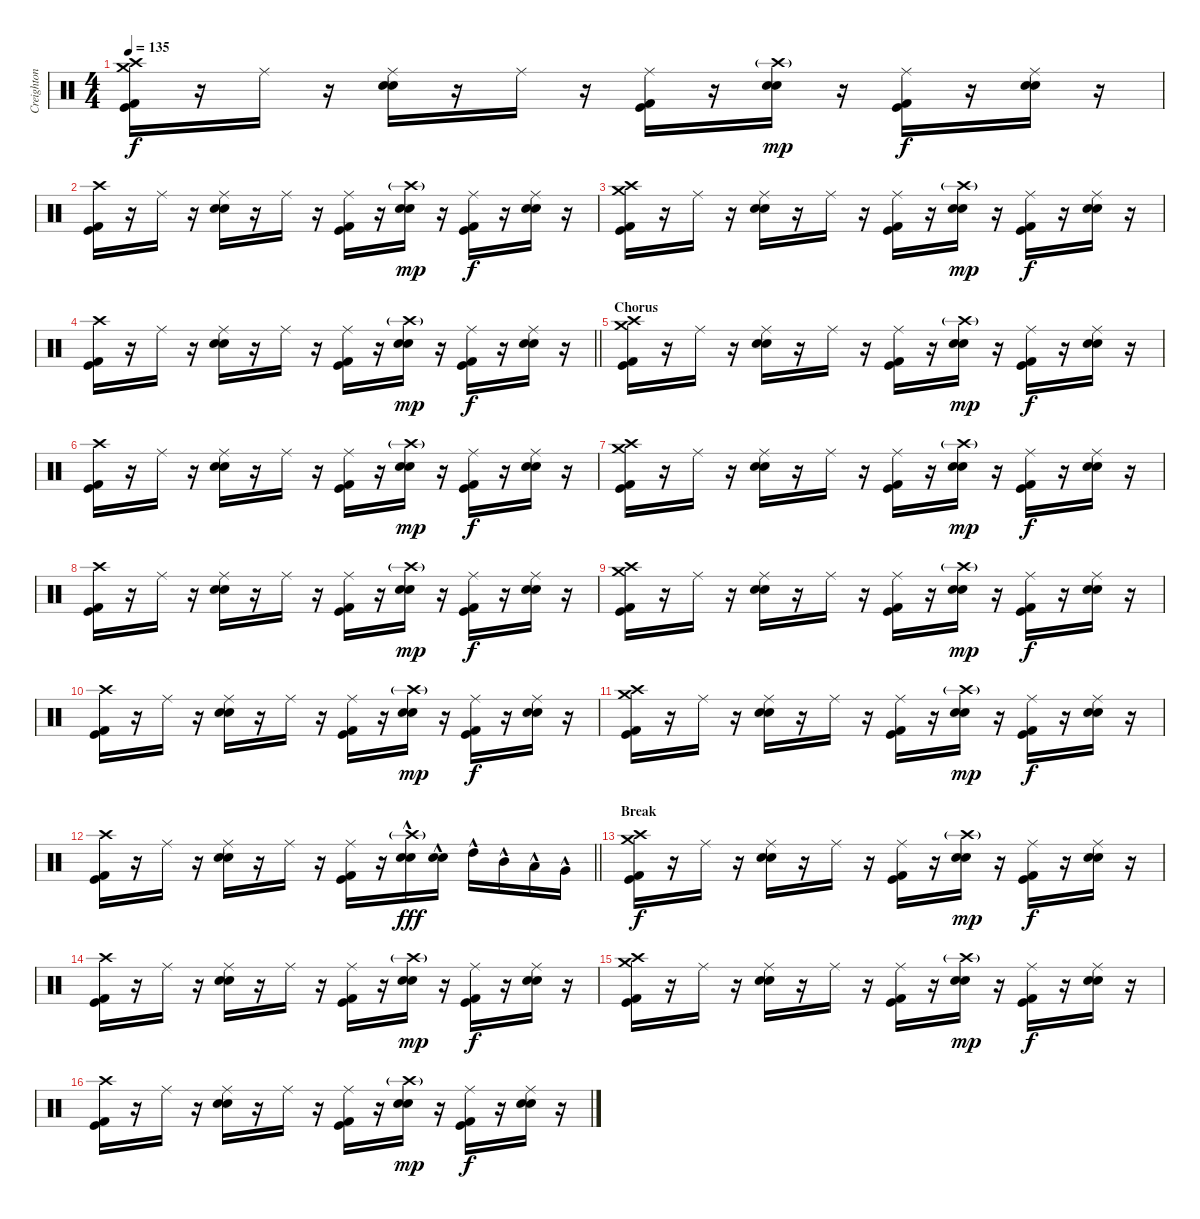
\track ("Creighton Barrett (Drums)" "Creighton ") {instrument percussion}
\staff {score}
\articulation defaults
\ts (4 4)
\tempo 135
\clef neutral
\ks c
("Crash high (hit)" "Crash medium (hit)" "Kick (hit)" "Kick (hit) 2").16{dy f} r.16 "Ride (middle)".16 r.16 ("Ride (middle)" "Electric Snare (hit)" "Snare (hit) 2").16 r.16 "Ride (middle)".16 r.16 ("Ride (middle)" "Kick (hit)" "Kick (hit) 2").16 r.16 ("Crash high (hit)"{g} "Electric Snare (hit)" "Snare (hit) 2").16{dy mp} r.16 ("Ride (middle)" "Kick (hit)" "Kick (hit) 2").16{dy f} r.16 ("Ride (middle)" "Electric Snare (hit)" "Snare (hit) 2").16 r.16 |
("Crash high (hit)" "Kick (hit)" "Kick (hit) 2").16 r.16 "Ride (middle)".16 r.16 ("Ride (middle)" "Electric Snare (hit)" "Snare (hit) 2").16 r.16 "Ride (middle)".16 r.16 ("Ride (middle)" "Kick (hit)" "Kick (hit) 2").16 r.16 ("Crash high (hit)"{g} "Electric Snare (hit)" "Snare (hit) 2").16{dy mp} r.16 ("Ride (middle)" "Kick (hit)" "Kick (hit) 2").16{dy f} r.16 ("Ride (middle)" "Electric Snare (hit)" "Snare (hit) 2").16 r.16 |
("Crash high (hit)" "Crash medium (hit)" "Kick (hit)" "Kick (hit) 2").16 r.16 "Ride (middle)".16 r.16 ("Ride (middle)" "Electric Snare (hit)" "Snare (hit) 2").16 r.16 "Ride (middle)".16 r.16 ("Ride (middle)" "Kick (hit)" "Kick (hit) 2").16 r.16 ("Crash high (hit)"{g} "Electric Snare (hit)" "Snare (hit) 2").16{dy mp} r.16 ("Ride (middle)" "Kick (hit)" "Kick (hit) 2").16{dy f} r.16 ("Ride (middle)" "Electric Snare (hit)" "Snare (hit) 2").16 r.16 |
\barLineRight lightlight
("Crash high (hit)" "Kick (hit)" "Kick (hit) 2").16 r.16 "Ride (middle)".16 r.16 ("Ride (middle)" "Electric Snare (hit)" "Snare (hit) 2").16 r.16 "Ride (middle)".16 r.16 ("Ride (middle)" "Kick (hit)" "Kick (hit) 2").16 r.16 ("Crash high (hit)"{g} "Electric Snare (hit)" "Snare (hit) 2").16{dy mp} r.16 ("Ride (middle)" "Kick (hit)" "Kick (hit) 2").16{dy f} r.16 ("Ride (middle)" "Electric Snare (hit)" "Snare (hit) 2").16 r.16 |
\section ("" "Chorus")
("Crash high (hit)" "Crash medium (hit)" "Kick (hit)" "Kick (hit) 2").16 r.16 "Ride (middle)".16 r.16 ("Ride (middle)" "Electric Snare (hit)" "Snare (hit) 2").16 r.16 "Ride (middle)".16 r.16 ("Ride (middle)" "Kick (hit)" "Kick (hit) 2").16 r.16 ("Crash high (hit)"{g} "Electric Snare (hit)" "Snare (hit) 2").16{dy mp} r.16 ("Ride (middle)" "Kick (hit)" "Kick (hit) 2").16{dy f} r.16 ("Ride (middle)" "Electric Snare (hit)" "Snare (hit) 2").16 r.16 |
("Crash high (hit)" "Kick (hit)" "Kick (hit) 2").16 r.16 "Ride (middle)".16 r.16 ("Ride (middle)" "Electric Snare (hit)" "Snare (hit) 2").16 r.16 "Ride (middle)".16 r.16 ("Ride (middle)" "Kick (hit)" "Kick (hit) 2").16 r.16 ("Crash high (hit)"{g} "Electric Snare (hit)" "Snare (hit) 2").16{dy mp} r.16 ("Ride (middle)" "Kick (hit)" "Kick (hit) 2").16{dy f} r.16 ("Ride (middle)" "Electric Snare (hit)" "Snare (hit) 2").16 r.16 |
("Crash high (hit)" "Crash medium (hit)" "Kick (hit)" "Kick (hit) 2").16 r.16 "Ride (middle)".16 r.16 ("Ride (middle)" "Electric Snare (hit)" "Snare (hit) 2").16 r.16 "Ride (middle)".16 r.16 ("Ride (middle)" "Kick (hit)" "Kick (hit) 2").16 r.16 ("Crash high (hit)"{g} "Electric Snare (hit)" "Snare (hit) 2").16{dy mp} r.16 ("Ride (middle)" "Kick (hit)" "Kick (hit) 2").16{dy f} r.16 ("Ride (middle)" "Electric Snare (hit)" "Snare (hit) 2").16 r.16 |
("Crash high (hit)" "Kick (hit)" "Kick (hit) 2").16 r.16 "Ride (middle)".16 r.16 ("Ride (middle)" "Electric Snare (hit)" "Snare (hit) 2").16 r.16 "Ride (middle)".16 r.16 ("Ride (middle)" "Kick (hit)" "Kick (hit) 2").16 r.16 ("Crash high (hit)"{g} "Electric Snare (hit)" "Snare (hit) 2").16{dy mp} r.16 ("Ride (middle)" "Kick (hit)" "Kick (hit) 2").16{dy f} r.16 ("Ride (middle)" "Electric Snare (hit)" "Snare (hit) 2").16 r.16 |
("Crash high (hit)" "Crash medium (hit)" "Kick (hit)" "Kick (hit) 2").16 r.16 "Ride (middle)".16 r.16 ("Ride (middle)" "Electric Snare (hit)" "Snare (hit) 2").16 r.16 "Ride (middle)".16 r.16 ("Ride (middle)" "Kick (hit)" "Kick (hit) 2").16 r.16 ("Crash high (hit)"{g} "Electric Snare (hit)" "Snare (hit) 2").16{dy mp} r.16 ("Ride (middle)" "Kick (hit)" "Kick (hit) 2").16{dy f} r.16 ("Ride (middle)" "Electric Snare (hit)" "Snare (hit) 2").16 r.16 |
("Crash high (hit)" "Kick (hit)" "Kick (hit) 2").16 r.16 "Ride (middle)".16 r.16 ("Ride (middle)" "Electric Snare (hit)" "Snare (hit) 2").16 r.16 "Ride (middle)".16 r.16 ("Ride (middle)" "Kick (hit)" "Kick (hit) 2").16 r.16 ("Crash high (hit)"{g} "Electric Snare (hit)" "Snare (hit) 2").16{dy mp} r.16 ("Ride (middle)" "Kick (hit)" "Kick (hit) 2").16{dy f} r.16 ("Ride (middle)" "Electric Snare (hit)" "Snare (hit) 2").16 r.16 |
("Crash high (hit)" "Crash medium (hit)" "Kick (hit)" "Kick (hit) 2").16 r.16 "Ride (middle)".16 r.16 ("Ride (middle)" "Electric Snare (hit)" "Snare (hit) 2").16 r.16 "Ride (middle)".16 r.16 ("Ride (middle)" "Kick (hit)" "Kick (hit) 2").16 r.16 ("Crash high (hit)"{g} "Electric Snare (hit)" "Snare (hit) 2").16{dy mp} r.16 ("Ride (middle)" "Kick (hit)" "Kick (hit) 2").16{dy f} r.16 ("Ride (middle)" "Electric Snare (hit)" "Snare (hit) 2").16 r.16 |
\barLineRight lightlight
("Crash high (hit)" "Kick (hit)" "Kick (hit) 2").16 r.16 "Ride (middle)".16 r.16 ("Ride (middle)" "Electric Snare (hit)" "Snare (hit) 2").16 r.16 "Ride (middle)".16 r.16 ("Ride (middle)" "Kick (hit)" "Kick (hit) 2").16 r.16 ("Crash high (hit)"{g} "Electric Snare (hit)"{hac} "Snare (hit) 2"{hac}).16{dy fff} ("Electric Snare (hit)"{hac} "Snare (hit) 2"{hac}).16 "High Tom (hit)"{hac}.16 "Mid Tom (hit)"{hac}.16 "Low Tom (hit)"{hac}.16 "Very Low Tom (hit)"{hac}.16 |
\section ("" "Break")
("Crash high (hit)" "Crash medium (hit)" "Kick (hit)" "Kick (hit) 2").16{dy f} r.16 "Ride (middle)".16 r.16 ("Ride (middle)" "Electric Snare (hit)" "Snare (hit) 2").16 r.16 "Ride (middle)".16 r.16 ("Ride (middle)" "Kick (hit)" "Kick (hit) 2").16 r.16 ("Crash high (hit)"{g} "Electric Snare (hit)" "Snare (hit) 2").16{dy mp} r.16 ("Ride (middle)" "Kick (hit)" "Kick (hit) 2").16{dy f} r.16 ("Ride (middle)" "Electric Snare (hit)" "Snare (hit) 2").16 r.16 |
("Crash high (hit)" "Kick (hit)" "Kick (hit) 2").16 r.16 "Ride (middle)".16 r.16 ("Ride (middle)" "Electric Snare (hit)" "Snare (hit) 2").16 r.16 "Ride (middle)".16 r.16 ("Ride (middle)" "Kick (hit)" "Kick (hit) 2").16 r.16 ("Crash high (hit)"{g} "Electric Snare (hit)" "Snare (hit) 2").16{dy mp} r.16 ("Ride (middle)" "Kick (hit)" "Kick (hit) 2").16{dy f} r.16 ("Ride (middle)" "Electric Snare (hit)" "Snare (hit) 2").16 r.16 |
("Crash high (hit)" "Crash medium (hit)" "Kick (hit)" "Kick (hit) 2").16 r.16 "Ride (middle)".16 r.16 ("Ride (middle)" "Electric Snare (hit)" "Snare (hit) 2").16 r.16 "Ride (middle)".16 r.16 ("Ride (middle)" "Kick (hit)" "Kick (hit) 2").16 r.16 ("Crash high (hit)"{g} "Electric Snare (hit)" "Snare (hit) 2").16{dy mp} r.16 ("Ride (middle)" "Kick (hit)" "Kick (hit) 2").16{dy f} r.16 ("Ride (middle)" "Electric Snare (hit)" "Snare (hit) 2").16 r.16 |
("Crash high (hit)" "Kick (hit)" "Kick (hit) 2").16 r.16 "Ride (middle)".16 r.16 ("Ride (middle)" "Electric Snare (hit)" "Snare (hit) 2").16 r.16 "Ride (middle)".16 r.16 ("Ride (middle)" "Kick (hit)" "Kick (hit) 2").16 r.16 ("Crash high (hit)"{g} "Electric Snare (hit)" "Snare (hit) 2").16{dy mp} r.16 ("Ride (middle)" "Kick (hit)" "Kick (hit) 2").16{dy f} r.16 ("Ride (middle)" "Electric Snare (hit)" "Snare (hit) 2").16 r.16
